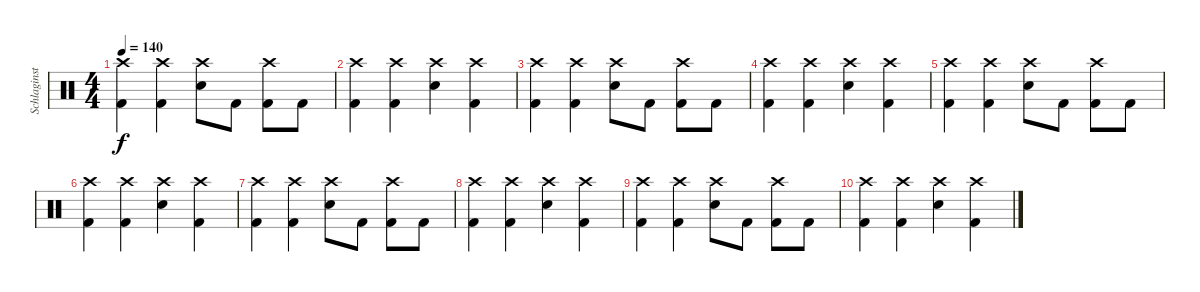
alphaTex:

\track ("Schlaginstrumente - Auswahl" "Schlaginst") {instrument percussion}
\staff {score}
\articulation defaults
\ts (4 4)
\tempo 140
\clef neutral
\ks c
("Crash high (hit)" "Kick (hit) 2").4{dy f} ("Crash high (hit)" "Kick (hit) 2").4 ("Crash high (hit)" "Electric Snare (hit)").8 "Kick (hit) 2".8 ("Crash high (hit)" "Kick (hit) 2").8 "Kick (hit) 2".8 |
("Crash high (hit)" "Kick (hit) 2").4 ("Crash high (hit)" "Kick (hit) 2").4 ("Crash high (hit)" "Electric Snare (hit)").4 ("Crash high (hit)" "Kick (hit) 2").4 |
("Crash high (hit)" "Kick (hit) 2").4 ("Crash high (hit)" "Kick (hit) 2").4 ("Crash high (hit)" "Electric Snare (hit)").8 "Kick (hit) 2".8 ("Crash high (hit)" "Kick (hit) 2").8 "Kick (hit) 2".8 |
("Crash high (hit)" "Kick (hit) 2").4 ("Crash high (hit)" "Kick (hit) 2").4 ("Crash high (hit)" "Electric Snare (hit)").4 ("Crash high (hit)" "Kick (hit) 2").4 |
("Crash high (hit)" "Kick (hit) 2").4 ("Crash high (hit)" "Kick (hit) 2").4 ("Crash high (hit)" "Electric Snare (hit)").8 "Kick (hit) 2".8 ("Crash high (hit)" "Kick (hit) 2").8 "Kick (hit) 2".8 |
("Crash high (hit)" "Kick (hit) 2").4 ("Crash high (hit)" "Kick (hit) 2").4 ("Crash high (hit)" "Electric Snare (hit)").4 ("Crash high (hit)" "Kick (hit) 2").4 |
("Crash high (hit)" "Kick (hit) 2").4 ("Crash high (hit)" "Kick (hit) 2").4 ("Crash high (hit)" "Electric Snare (hit)").8 "Kick (hit) 2".8 ("Crash high (hit)" "Kick (hit) 2").8 "Kick (hit) 2".8 |
("Crash high (hit)" "Kick (hit) 2").4 ("Crash high (hit)" "Kick (hit) 2").4 ("Crash high (hit)" "Electric Snare (hit)").4 ("Crash high (hit)" "Kick (hit) 2").4 |
("Crash high (hit)" "Kick (hit) 2").4 ("Crash high (hit)" "Kick (hit) 2").4 ("Crash high (hit)" "Electric Snare (hit)").8 "Kick (hit) 2".8 ("Crash high (hit)" "Kick (hit) 2").8 "Kick (hit) 2".8 |
("Crash high (hit)" "Kick (hit) 2").4 ("Crash high (hit)" "Kick (hit) 2").4 ("Crash high (hit)" "Electric Snare (hit)").4 ("Crash high (hit)" "Kick (hit) 2").4
